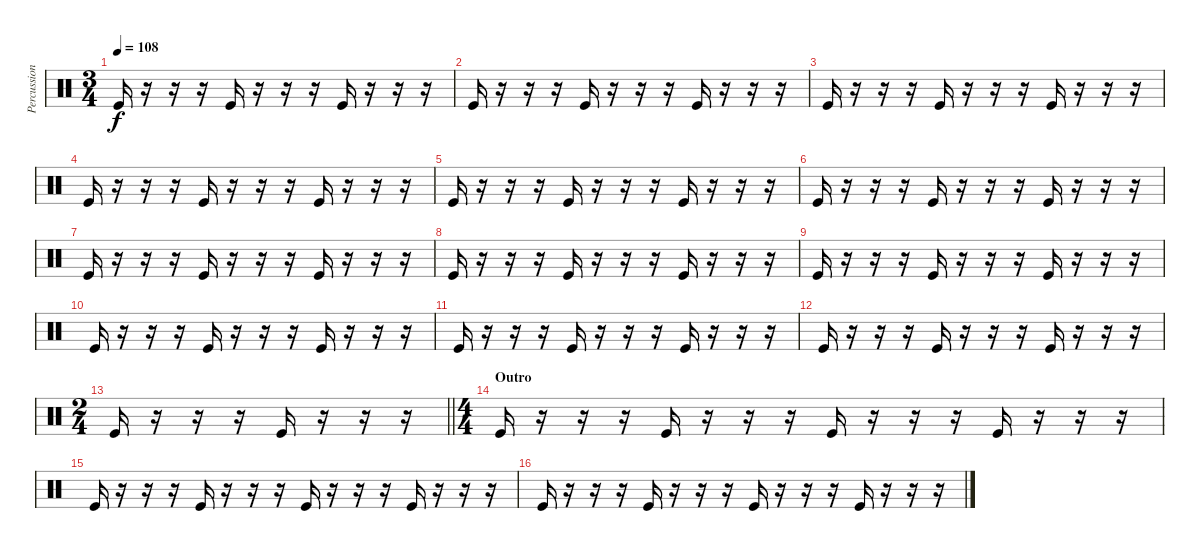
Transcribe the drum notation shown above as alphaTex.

\track ("Percussion" "Percussion") {instrument percussion}
\staff {score}
\articulation defaults
\ts (3 4)
\tempo 108
\clef neutral
\ks c "Kick (hit)".16{dy f}
r.16 r.16 r.16 "Kick (hit)".16 r.16 r.16 r.16 "Kick (hit)".16 r.16 r.16 r.16 |
"Kick (hit)".16 r.16 r.16 r.16 "Kick (hit)".16 r.16 r.16 r.16 "Kick (hit)".16 r.16 r.16 r.16 |
"Kick (hit)".16 r.16 r.16 r.16 "Kick (hit)".16 r.16 r.16 r.16 "Kick (hit)".16 r.16 r.16 r.16 |
"Kick (hit)".16 r.16 r.16 r.16 "Kick (hit)".16 r.16 r.16 r.16 "Kick (hit)".16 r.16 r.16 r.16 |
"Kick (hit)".16 r.16 r.16 r.16 "Kick (hit)".16 r.16 r.16 r.16 "Kick (hit)".16 r.16 r.16 r.16 |
"Kick (hit)".16 r.16 r.16 r.16 "Kick (hit)".16 r.16 r.16 r.16 "Kick (hit)".16 r.16 r.16 r.16 |
"Kick (hit)".16 r.16 r.16 r.16 "Kick (hit)".16 r.16 r.16 r.16 "Kick (hit)".16 r.16 r.16 r.16 |
"Kick (hit)".16 r.16 r.16 r.16 "Kick (hit)".16 r.16 r.16 r.16 "Kick (hit)".16 r.16 r.16 r.16 |
"Kick (hit)".16 r.16 r.16 r.16 "Kick (hit)".16 r.16 r.16 r.16 "Kick (hit)".16 r.16 r.16 r.16 |
"Kick (hit)".16 r.16 r.16 r.16 "Kick (hit)".16 r.16 r.16 r.16 "Kick (hit)".16 r.16 r.16 r.16 |
"Kick (hit)".16 r.16 r.16 r.16 "Kick (hit)".16 r.16 r.16 r.16 "Kick (hit)".16 r.16 r.16 r.16 |
"Kick (hit)".16 r.16 r.16 r.16 "Kick (hit)".16 r.16 r.16 r.16 "Kick (hit)".16 r.16 r.16 r.16 |
\ts (2 4)
\barLineRight lightlight "Kick (hit)".16
r.16 r.16 r.16 "Kick (hit)".16 r.16 r.16 r.16 |
\ts (4 4)
\section ("" "Outro")
"Kick (hit)".16 r.16 r.16 r.16 "Kick (hit)".16 r.16 r.16 r.16 "Kick (hit)".16 r.16 r.16 r.16 "Kick (hit)".16 r.16 r.16 r.16 |
"Kick (hit)".16 r.16 r.16 r.16 "Kick (hit)".16 r.16 r.16 r.16 "Kick (hit)".16 r.16 r.16 r.16 "Kick (hit)".16 r.16 r.16 r.16 |
"Kick (hit)".16 r.16 r.16 r.16 "Kick (hit)".16 r.16 r.16 r.16 "Kick (hit)".16 r.16 r.16 r.16 "Kick (hit)".16 r.16 r.16 r.16
